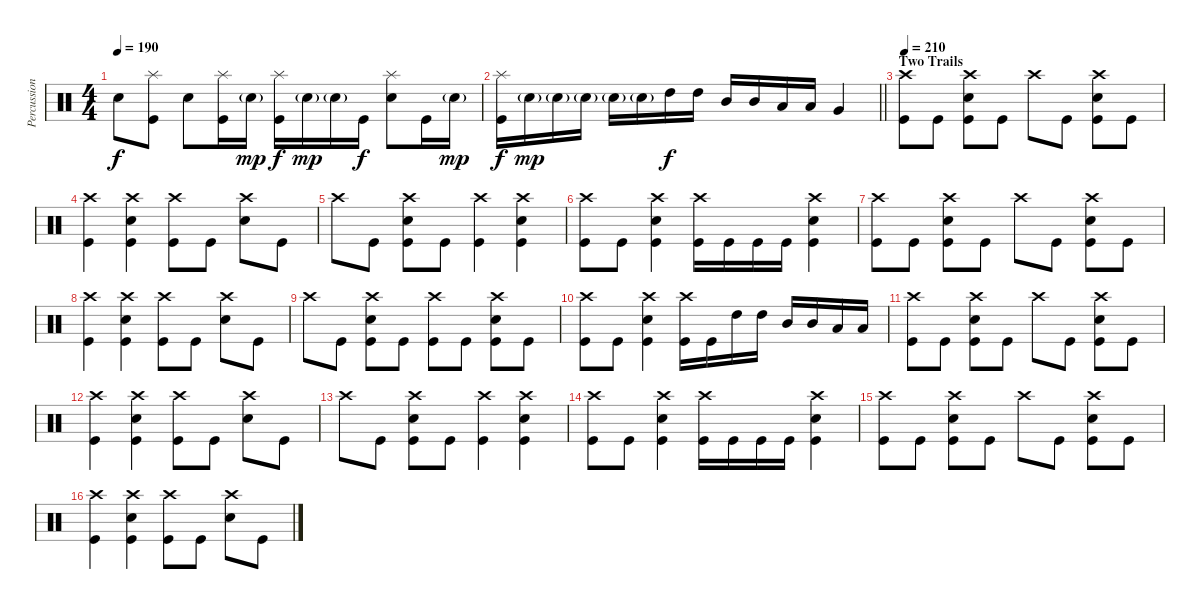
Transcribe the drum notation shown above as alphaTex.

\track ("Percussion" "Percussion") {instrument percussion}
\staff {score}
\articulation defaults
\ts (4 4)
\tempo 190
\clef neutral
\ks c "Snare (hit)"{t}.8{dy f}
("Splash (hit)" "Kick (hit)").8 "Electric Snare (hit)".8 ("Splash (hit)" "Kick (hit)").16 "Electric Snare (hit)"{g}.16{dy mp} ("Splash (hit)" "Kick (hit)").16{dy f} "Electric Snare (hit)"{g}.16{dy mp} "Electric Snare (hit)"{g}.16 "Kick (hit)".16{dy f} ("Splash (hit)" "Electric Snare (hit)").8 "Kick (hit)".16 "Electric Snare (hit)"{g}.16{dy mp} |
\barLineRight lightlight
("Splash (hit)" "Kick (hit)").16{dy f} "Electric Snare (hit)"{g}.16{dy mp} "Electric Snare (hit)"{g}.16 "Electric Snare (hit)"{g}.16 "Electric Snare (hit)"{g}.16 "Electric Snare (hit)"{g}.16 "High Tom (hit)".16{dy f} "High Tom (hit)".16 "Mid Tom (hit)".16 "Mid Tom (hit)".16 "Low Tom (hit)".16 "Low Tom (hit)".16 "Very Low Tom (hit)".4 |
\section ("" "Two Trails")
\tempo 210
("Crash high (hit)" "Kick (hit)").8 "Kick (hit)".8 ("Crash high (hit)" "Electric Snare (hit)" "Kick (hit)").8 "Kick (hit)".8 "Crash high (hit)".8 "Kick (hit)".8 ("Crash high (hit)" "Electric Snare (hit)" "Kick (hit)").8 "Kick (hit)".8 |
("Crash high (hit)" "Kick (hit)").4 ("Crash high (hit)" "Electric Snare (hit)" "Kick (hit)").4 ("Crash high (hit)" "Kick (hit)").8 "Kick (hit)".8 ("Crash high (hit)" "Electric Snare (hit)").8 "Kick (hit)".8 |
"Crash high (hit)".8 "Kick (hit)".8 ("Crash high (hit)" "Electric Snare (hit)" "Kick (hit)").8 "Kick (hit)".8 ("Crash high (hit)" "Kick (hit)").4 ("Crash high (hit)" "Electric Snare (hit)" "Kick (hit)").4 |
("Crash high (hit)" "Kick (hit)").8 "Kick (hit)".8 ("Crash high (hit)" "Electric Snare (hit)" "Kick (hit)").4 ("Crash high (hit)" "Kick (hit)").16 "Kick (hit)".16 "Kick (hit)".16 "Kick (hit)".16 ("Crash high (hit)" "Electric Snare (hit)" "Kick (hit)").4 |
("Crash high (hit)" "Kick (hit)").8 "Kick (hit)".8 ("Crash high (hit)" "Electric Snare (hit)" "Kick (hit)").8 "Kick (hit)".8 "Crash high (hit)".8 "Kick (hit)".8 ("Crash high (hit)" "Electric Snare (hit)" "Kick (hit)").8 "Kick (hit)".8 |
("Crash high (hit)" "Kick (hit)").4 ("Crash high (hit)" "Electric Snare (hit)" "Kick (hit)").4 ("Crash high (hit)" "Kick (hit)").8 "Kick (hit)".8 ("Crash high (hit)" "Electric Snare (hit)").8 "Kick (hit)".8 |
"Crash high (hit)".8 "Kick (hit)".8 ("Crash high (hit)" "Electric Snare (hit)" "Kick (hit)").8 "Kick (hit)".8 ("Crash high (hit)" "Kick (hit)").8 "Kick (hit)".8 ("Crash high (hit)" "Electric Snare (hit)" "Kick (hit)").8 "Kick (hit)".8 |
("Crash high (hit)" "Kick (hit)").8 "Kick (hit)".8 ("Crash high (hit)" "Electric Snare (hit)" "Kick (hit)").4 ("Crash high (hit)" "Kick (hit)").16 "Kick (hit)".16 "High Tom (hit)".16 "High Tom (hit)".16 "Mid Tom (hit)".16 "Mid Tom (hit)".16 "Low Tom (hit)".16 "Low Tom (hit)".16 |
("Crash high (hit)" "Kick (hit)").8 "Kick (hit)".8 ("Crash high (hit)" "Electric Snare (hit)" "Kick (hit)").8 "Kick (hit)".8 "Crash high (hit)".8 "Kick (hit)".8 ("Crash high (hit)" "Electric Snare (hit)" "Kick (hit)").8 "Kick (hit)".8 |
("Crash high (hit)" "Kick (hit)").4 ("Crash high (hit)" "Electric Snare (hit)" "Kick (hit)").4 ("Crash high (hit)" "Kick (hit)").8 "Kick (hit)".8 ("Crash high (hit)" "Electric Snare (hit)").8 "Kick (hit)".8 |
"Crash high (hit)".8 "Kick (hit)".8 ("Crash high (hit)" "Electric Snare (hit)" "Kick (hit)").8 "Kick (hit)".8 ("Crash high (hit)" "Kick (hit)").4 ("Crash high (hit)" "Electric Snare (hit)" "Kick (hit)").4 |
("Crash high (hit)" "Kick (hit)").8 "Kick (hit)".8 ("Crash high (hit)" "Electric Snare (hit)" "Kick (hit)").4 ("Crash high (hit)" "Kick (hit)").16 "Kick (hit)".16 "Kick (hit)".16 "Kick (hit)".16 ("Crash high (hit)" "Electric Snare (hit)" "Kick (hit)").4 |
("Crash high (hit)" "Kick (hit)").8 "Kick (hit)".8 ("Crash high (hit)" "Electric Snare (hit)" "Kick (hit)").8 "Kick (hit)".8 "Crash high (hit)".8 "Kick (hit)".8 ("Crash high (hit)" "Electric Snare (hit)" "Kick (hit)").8 "Kick (hit)".8 |
("Crash high (hit)" "Kick (hit)").4 ("Crash high (hit)" "Electric Snare (hit)" "Kick (hit)").4 ("Crash high (hit)" "Kick (hit)").8 "Kick (hit)".8 ("Crash high (hit)" "Electric Snare (hit)").8 "Kick (hit)".8
